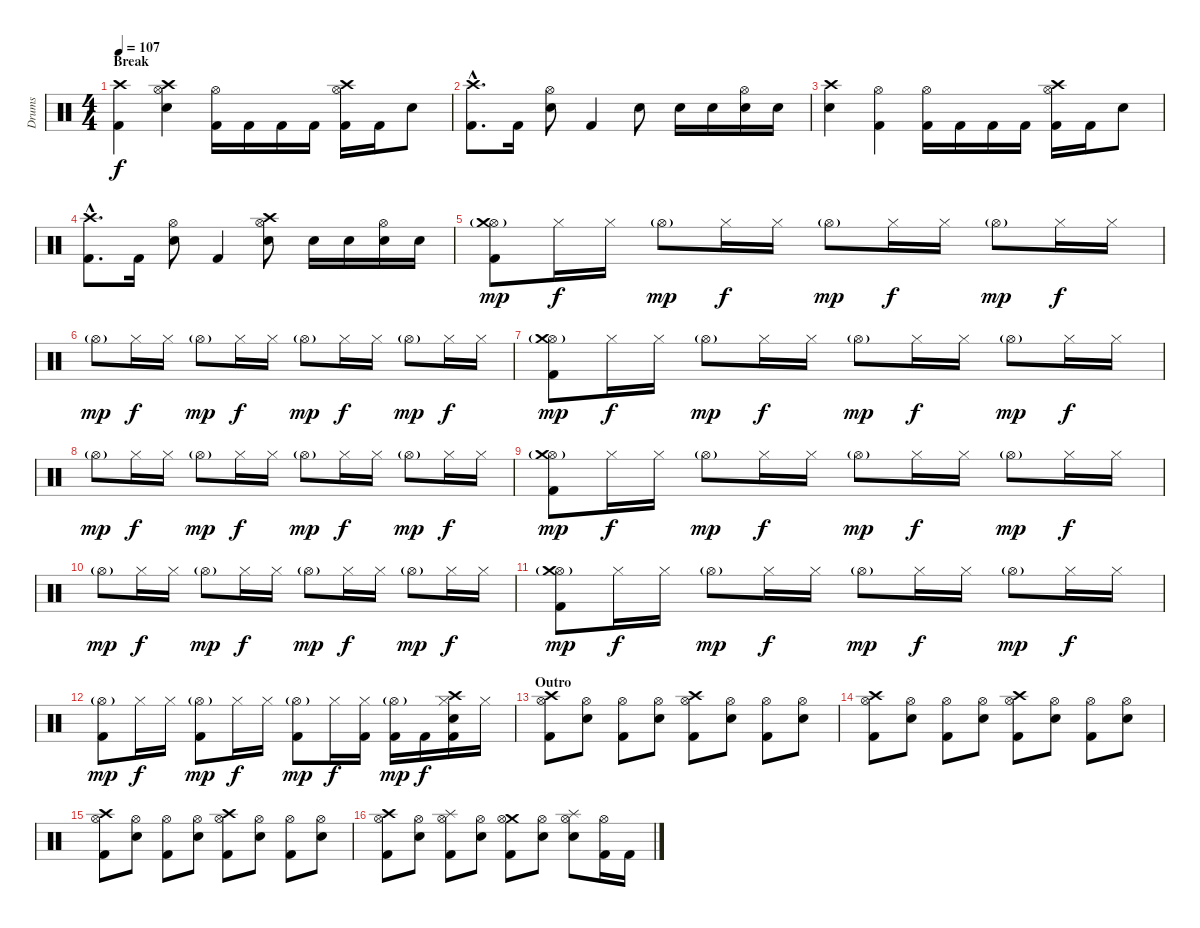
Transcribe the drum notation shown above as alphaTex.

\track ("Drums" "Drums") {instrument percussion}
\staff {score}
\articulation defaults
\ts (4 4)
\section ("" "Break")
\tempo 107
\clef neutral
\ks c
("Crash high (hit)" "Kick (hit) 2").4{dy f} ("Crash high (hit)" "Hi-Hat (open)" "Snare (hit) 2").4 ("Hi-Hat (open)" "Kick (hit) 2").16 "Kick (hit) 2".16 "Kick (hit) 2".16 "Kick (hit) 2".16 ("Crash high (hit)" "Hi-Hat (open)" "Kick (hit) 2").16 "Kick (hit) 2".16 "Snare (hit) 2".8 |
("Crash high (hit)"{hac} "Kick (hit) 2"{hac}).8{d} "Kick (hit) 2".16 ("Hi-Hat (open)" "Snare (hit) 2").8 "Kick (hit) 2".4 "Snare (hit) 2".8 "Snare (hit) 2".16 "Snare (hit) 2".16 ("Hi-Hat (open)" "Snare (hit) 2").16 "Snare (hit) 2".16 |
("Crash high (hit)" "Snare (hit) 2").4 ("Hi-Hat (open)" "Kick (hit) 2").4 ("Hi-Hat (open)" "Kick (hit) 2").16 "Kick (hit) 2".16 "Kick (hit) 2".16 "Kick (hit) 2".16 ("Crash high (hit)" "Hi-Hat (open)" "Kick (hit) 2").16 "Kick (hit) 2".16 "Snare (hit) 2".8 |
("Crash high (hit)"{hac} "Kick (hit) 2"{hac}).8{d} "Kick (hit) 2".16 ("Hi-Hat (open)" "Snare (hit) 2").8 "Kick (hit) 2".4 ("Crash high (hit)" "Hi-Hat (open)" "Snare (hit) 2").8 "Snare (hit) 2".16 "Snare (hit) 2".16 ("Hi-Hat (open)" "Snare (hit) 2").16 "Snare (hit) 2".16 |
("Hi-Hat (open)"{g} "Crash medium (hit)" "Kick (hit) 2").8{dy mp} "Hi-Hat (closed)".16{dy f} "Hi-Hat (closed)".16 "Hi-Hat (open)"{g}.8{dy mp} "Hi-Hat (closed)".16{dy f} "Hi-Hat (closed)".16 "Hi-Hat (open)"{g}.8{dy mp} "Hi-Hat (closed)".16{dy f} "Hi-Hat (closed)".16 "Hi-Hat (open)"{g}.8{dy mp} "Hi-Hat (closed)".16{dy f} "Hi-Hat (closed)".16 |
"Hi-Hat (open)"{g}.8{dy mp} "Hi-Hat (closed)".16{dy f} "Hi-Hat (closed)".16 "Hi-Hat (open)"{g}.8{dy mp} "Hi-Hat (closed)".16{dy f} "Hi-Hat (closed)".16 "Hi-Hat (open)"{g}.8{dy mp} "Hi-Hat (closed)".16{dy f} "Hi-Hat (closed)".16 "Hi-Hat (open)"{g}.8{dy mp} "Hi-Hat (closed)".16{dy f} "Hi-Hat (closed)".16 |
("Hi-Hat (open)"{g} "Crash medium (hit)" "Kick (hit) 2").8{dy mp} "Hi-Hat (closed)".16{dy f} "Hi-Hat (closed)".16 "Hi-Hat (open)"{g}.8{dy mp} "Hi-Hat (closed)".16{dy f} "Hi-Hat (closed)".16 "Hi-Hat (open)"{g}.8{dy mp} "Hi-Hat (closed)".16{dy f} "Hi-Hat (closed)".16 "Hi-Hat (open)"{g}.8{dy mp} "Hi-Hat (closed)".16{dy f} "Hi-Hat (closed)".16 |
"Hi-Hat (open)"{g}.8{dy mp} "Hi-Hat (closed)".16{dy f} "Hi-Hat (closed)".16 "Hi-Hat (open)"{g}.8{dy mp} "Hi-Hat (closed)".16{dy f} "Hi-Hat (closed)".16 "Hi-Hat (open)"{g}.8{dy mp} "Hi-Hat (closed)".16{dy f} "Hi-Hat (closed)".16 "Hi-Hat (open)"{g}.8{dy mp} "Hi-Hat (closed)".16{dy f} "Hi-Hat (closed)".16 |
("Hi-Hat (open)"{g} "Crash medium (hit)" "Kick (hit) 2").8{dy mp} "Hi-Hat (closed)".16{dy f} "Hi-Hat (closed)".16 "Hi-Hat (open)"{g}.8{dy mp} "Hi-Hat (closed)".16{dy f} "Hi-Hat (closed)".16 "Hi-Hat (open)"{g}.8{dy mp} "Hi-Hat (closed)".16{dy f} "Hi-Hat (closed)".16 "Hi-Hat (open)"{g}.8{dy mp} "Hi-Hat (closed)".16{dy f} "Hi-Hat (closed)".16 |
"Hi-Hat (open)"{g}.8{dy mp} "Hi-Hat (closed)".16{dy f} "Hi-Hat (closed)".16 "Hi-Hat (open)"{g}.8{dy mp} "Hi-Hat (closed)".16{dy f} "Hi-Hat (closed)".16 "Hi-Hat (open)"{g}.8{dy mp} "Hi-Hat (closed)".16{dy f} "Hi-Hat (closed)".16 "Hi-Hat (open)"{g}.8{dy mp} "Hi-Hat (closed)".16{dy f} "Hi-Hat (closed)".16 |
("Hi-Hat (open)"{g} "Crash medium (hit)" "Kick (hit) 2").8{dy mp} "Hi-Hat (closed)".16{dy f} "Hi-Hat (closed)".16 "Hi-Hat (open)"{g}.8{dy mp} "Hi-Hat (closed)".16{dy f} "Hi-Hat (closed)".16 "Hi-Hat (open)"{g}.8{dy mp} "Hi-Hat (closed)".16{dy f} "Hi-Hat (closed)".16 "Hi-Hat (open)"{g}.8{dy mp} "Hi-Hat (closed)".16{dy f} "Hi-Hat (closed)".16 |
("Hi-Hat (open)"{g} "Kick (hit) 2").8{dy mp} "Hi-Hat (closed)".16{dy f} "Hi-Hat (closed)".16 ("Hi-Hat (open)"{g} "Kick (hit) 2").8{dy mp} "Hi-Hat (closed)".16{dy f} "Hi-Hat (closed)".16 ("Hi-Hat (open)"{g} "Kick (hit) 2").8{dy mp} "Hi-Hat (closed)".16{dy f} ("Hi-Hat (closed)" "Kick (hit) 2").16 ("Hi-Hat (open)"{g} "Kick (hit) 2").16{dy mp} "Kick (hit) 2".16{dy f} ("Hi-Hat (closed)" "Crash high (hit)" "Snare (hit) 2" "Kick (hit) 2").16 "Hi-Hat (closed)".16 |
\section ("" "Outro")
("Crash high (hit)" "Hi-Hat (open)" "Kick (hit) 2").8 ("Hi-Hat (open)" "Snare (hit) 2").8 ("Hi-Hat (open)" "Kick (hit) 2").8 ("Hi-Hat (open)" "Snare (hit) 2").8 ("Crash high (hit)" "Hi-Hat (open)" "Kick (hit) 2").8 ("Hi-Hat (open)" "Snare (hit) 2").8 ("Hi-Hat (open)" "Kick (hit) 2").8 ("Hi-Hat (open)" "Snare (hit) 2").8 |
("Crash high (hit)" "Hi-Hat (open)" "Kick (hit) 2").8 ("Hi-Hat (open)" "Snare (hit) 2").8 ("Hi-Hat (open)" "Kick (hit) 2").8 ("Hi-Hat (open)" "Snare (hit) 2").8 ("Crash high (hit)" "Hi-Hat (open)" "Kick (hit) 2").8 ("Hi-Hat (open)" "Snare (hit) 2").8 ("Hi-Hat (open)" "Kick (hit) 2").8 ("Hi-Hat (open)" "Snare (hit) 2").8 |
("Crash high (hit)" "Hi-Hat (open)" "Kick (hit) 2").8 ("Hi-Hat (open)" "Snare (hit) 2").8 ("Hi-Hat (open)" "Kick (hit) 2").8 ("Hi-Hat (open)" "Snare (hit) 2").8 ("Crash high (hit)" "Hi-Hat (open)" "Kick (hit) 2").8 ("Hi-Hat (open)" "Snare (hit) 2").8 ("Hi-Hat (open)" "Kick (hit) 2").8 ("Hi-Hat (open)" "Snare (hit) 2").8 |
("Crash high (hit)" "Hi-Hat (open)" "Kick (hit) 2").8 ("Hi-Hat (open)" "Snare (hit) 2").8 ("Splash (hit)" "Hi-Hat (open)" "Kick (hit) 2").8 ("Hi-Hat (open)" "Snare (hit) 2").8 ("Crash medium (hit)" "Hi-Hat (open)" "Kick (hit) 2").8 ("Hi-Hat (open)" "Snare (hit) 2").8 ("Splash (hit)" "Hi-Hat (open)" "Snare (hit) 2").8 ("Hi-Hat (open)" "Kick (hit) 2").16 "Kick (hit) 2".16
